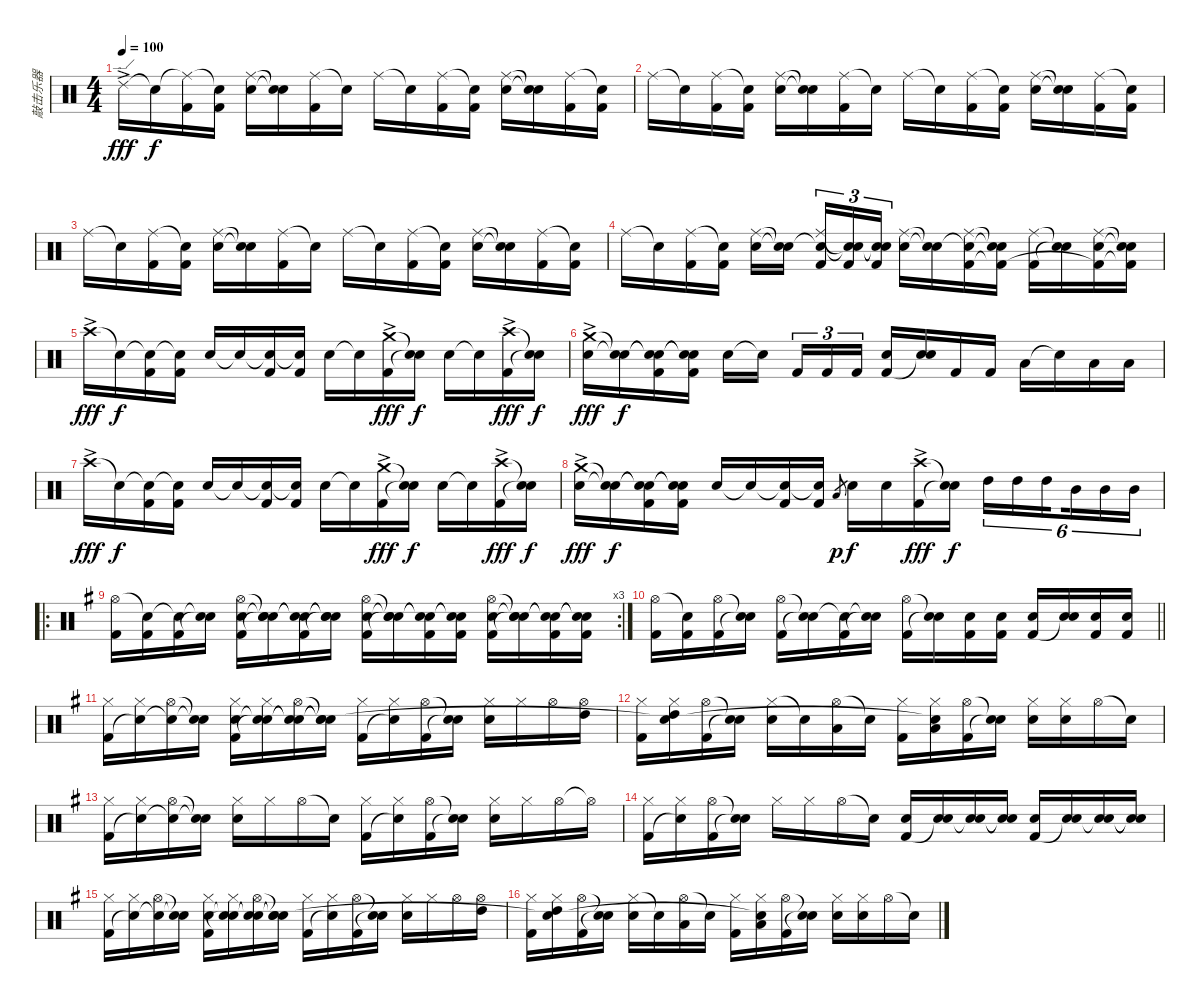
\track ("敲击乐器" "敲击乐器") {instrument percussion}
\staff {score}
\articulation defaults
\ts (4 4)
\tempo 100
\clef neutral
\ks c "Ride (edge) 2"{ac}.16{dy fff} "Snare (hit)"{t}.16{dy f}
("Ride (middle)"{t} "Kick (hit) 2").16 ("Snare (hit)"{t} "Kick (hit) 2").16 ("Ride (middle)" "Snare (hit) 2").16 ("Snare (hit)"{t} "Snare (hit)"{t}).16 ("Ride (middle)" "Kick (hit) 2").16 "Snare (hit)"{t}.16 "Ride (middle)".16 "Snare (hit)"{t}.16 ("Ride (middle)" "Kick (hit) 2").16 ("Snare (hit)"{t} "Kick (hit) 2").16 ("Ride (middle)" "Snare (hit) 2").16 ("Snare (hit)"{t} "Snare (hit)"{t}).16 ("Ride (middle)" "Kick (hit) 2").16 ("Snare (hit)"{t} "Kick (hit) 2").16 |
"Ride (middle)".16 "Snare (hit)"{t}.16 ("Ride (middle)" "Kick (hit) 2").16 ("Snare (hit)"{t} "Kick (hit) 2").16 ("Ride (middle)" "Snare (hit) 2").16 ("Snare (hit)"{t} "Snare (hit)"{t}).16 ("Ride (middle)" "Kick (hit) 2").16 "Snare (hit)"{t}.16 "Ride (middle)".16 "Snare (hit)"{t}.16 ("Ride (middle)" "Kick (hit) 2").16 ("Snare (hit)"{t} "Kick (hit) 2").16 ("Ride (middle)" "Snare (hit) 2").16 ("Snare (hit)"{t} "Snare (hit)"{t}).16 ("Ride (middle)" "Kick (hit) 2").16 ("Snare (hit)"{t} "Kick (hit) 2").16 |
"Ride (middle)".16 "Snare (hit)"{t}.16 ("Ride (middle)" "Kick (hit) 2").16 ("Snare (hit)"{t} "Kick (hit) 2").16 ("Ride (middle)" "Snare (hit) 2").16 ("Snare (hit)"{t} "Snare (hit)"{t}).16 ("Ride (middle)" "Kick (hit) 2").16 "Snare (hit)"{t}.16 "Ride (middle)".16 "Snare (hit)"{t}.16 ("Ride (middle)" "Kick (hit) 2").16 ("Snare (hit)"{t} "Kick (hit) 2").16 ("Ride (middle)" "Snare (hit) 2").16 ("Snare (hit)"{t} "Snare (hit)"{t}).16 ("Ride (middle)" "Kick (hit) 2").16 ("Snare (hit)"{t} "Kick (hit) 2").16 |
"Ride (middle)".16 "Snare (hit)"{t}.16 ("Ride (middle)" "Kick (hit) 2").16 ("Snare (hit)"{t} "Kick (hit) 2").16 ("Ride (middle)" "Snare (hit) 2").16 ("Snare (hit)"{t} "Snare (hit)"{t}).16{beam splitsecondary} ("Ride (middle)" "Snare (hit)"{t} "Kick (hit) 2").16{tu (3 2)} ("Snare (hit)"{t} "Snare (hit)"{t} "Kick (hit) 2").16{tu (3 2)} ("Snare (hit)"{t} "Snare (hit)"{t} "Kick (hit) 2").16{tu (3 2)} ("Ride (middle)" "Snare (hit) 2").16 ("Snare (hit)"{t} "Snare (hit)"{t}).16 ("Ride (middle)" "Snare (hit)"{t} "Kick (hit) 2").16 ("Snare (hit)"{t} "Snare (hit)"{t} "Kick (hit) 2"{t}).16 ("Ride (middle)" "Kick (hit) 2").16 ("Snare (hit)"{t} "Snare (hit)"{t}).16 ("Ride (middle)" "Snare (hit) 2" "Kick (hit) 2"{t}).16 ("Snare (hit)"{t} "Snare (hit)"{t} "Kick (hit) 2"{t}).16 |
"Crash high (hit)"{ac}.16{dy fff} "Snare (hit)"{t}.16{dy f} ("Snare (hit)"{t} "Kick (hit) 2").16 ("Snare (hit)"{t} "Kick (hit) 2").16 "Snare (hit) 2".16 "Snare (hit)"{t}.16 ("Snare (hit)"{t} "Kick (hit) 2").16 ("Snare (hit)"{t} "Kick (hit) 2").16 "Snare (hit) 2".16 "Snare (hit)"{t}.16 ("Crash medium (hit)"{ac} "Kick (hit) 2").16{dy fff} ("Snare (hit)"{t} "Snare (hit)"{t}).16{dy f} "Snare (hit) 2".16 "Snare (hit)"{t}.16 ("Crash high (hit)"{ac} "Kick (hit) 2").16{dy fff} ("Snare (hit)"{t} "Snare (hit)"{t}).16{dy f} |
("Crash medium (hit)"{ac} "Snare (hit) 2").16{dy fff} ("Snare (hit)"{t} "Snare (hit)"{t}).16{dy f} ("Snare (hit)"{t} "Snare (hit)"{t} "Kick (hit) 2").16 ("Snare (hit)"{t} "Snare (hit)"{t} "Kick (hit) 2").16 "Snare (hit) 2".16 "Snare (hit)"{t}.16{beam splitsecondary} "Kick (hit) 2".16{tu (3 2)} "Kick (hit) 2".16{tu (3 2)} "Kick (hit) 2".16{tu (3 2)} ("Snare (hit) 2" "Kick (hit) 2").16 ("Snare (hit) 2" "Snare (hit)"{t}).16 "Kick (hit) 2".16 "Kick (hit) 2".16 "Low Tom (hit)".16 "Snare (hit)"{t}.16 "Low Floor Tom (hit)".16 "Low Floor Tom (hit)".16 |
"Crash high (hit)"{ac}.16{dy fff} "Snare (hit)"{t}.16{dy f} ("Snare (hit)"{t} "Kick (hit) 2").16 ("Snare (hit)"{t} "Kick (hit) 2").16 "Snare (hit) 2".16 "Snare (hit)"{t}.16 ("Snare (hit)"{t} "Kick (hit) 2").16 ("Snare (hit)"{t} "Kick (hit) 2").16 "Snare (hit) 2".16 "Snare (hit)"{t}.16 ("Crash medium (hit)"{ac} "Kick (hit) 2").16{dy fff} ("Snare (hit)"{t} "Snare (hit)"{t}).16{dy f} "Snare (hit) 2".16 "Snare (hit)"{t}.16 ("Crash high (hit)"{ac} "Kick (hit) 2").16{dy fff} ("Snare (hit)"{t} "Snare (hit)"{t}).16{dy f} |
("Crash medium (hit)"{ac} "Snare (hit) 2").16{dy fff} ("Snare (hit)"{t} "Snare (hit)"{t}).16{dy f} ("Snare (hit)"{t} "Snare (hit)"{t} "Kick (hit) 2").16 ("Snare (hit)"{t} "Snare (hit)"{t} "Kick (hit) 2").16 "Snare (hit) 2".16 "Snare (hit)"{t}.16 ("Snare (hit)"{t} "Kick (hit) 2").16 ("Snare (hit)"{t} "Kick (hit) 2").16 "Low Tom (hit)"{h}.8{gr dy p} "Snare (hit) 2".16{dy f} "Snare (hit) 2".16 ("Crash high (hit)"{ac} "Kick (hit) 2").16{dy fff} ("Snare (hit)"{t} "Snare (hit)"{t}).16{dy f} "High Tom (hit)".16{tu (6 4)} "High Tom (hit)".16{tu (6 4)} "High Tom (hit)".16{tu (6 4) beam splitsecondary} "Mid Tom (hit)".16{tu (6 4)} "Mid Tom (hit)".16{tu (6 4)} "Mid Tom (hit)".16{tu (6 4)} |
\ro
\rc 3
\ks g
("Hi-Hat (open)" "Kick (hit) 2").16 ("Snare (hit)"{t} "Kick (hit) 2").16 ("Snare (hit)"{t} "Kick (hit) 2").16 ("Snare (hit)"{t} "Snare (hit)"{t}).16 ("Hi-Hat (open)" "Snare (hit) 2" "Kick (hit) 2").16 ("Snare (hit)"{t} "Snare (hit)"{t} "Snare (hit)"{t}).16 ("Snare (hit)"{t} "Snare (hit)"{t} "Kick (hit) 2").16 ("Snare (hit)"{t} "Snare (hit)"{t} "Snare (hit)"{t}).16 ("Hi-Hat (open)" "Snare (hit) 2" "Kick (hit) 2").16 ("Snare (hit)"{t} "Snare (hit)"{t} "Snare (hit)"{t}).16 ("Snare (hit)"{t} "Snare (hit)"{t} "Kick (hit) 2").16 ("Snare (hit)"{t} "Snare (hit)"{t} "Kick (hit) 2").16 ("Hi-Hat (open)" "Snare (hit) 2" "Kick (hit) 2").16 ("Snare (hit)"{t} "Snare (hit)"{t} "Snare (hit)"{t}).16 ("Snare (hit)"{t} "Snare (hit)"{t} "Kick (hit) 2").16 ("Snare (hit)"{t} "Snare (hit)"{t} "Kick (hit) 2").16 |
\barLineRight lightlight
("Hi-Hat (open)" "Kick (hit) 2").16 ("Snare (hit)"{t} "Kick (hit) 2").16 ("Hi-Hat (open)" "Kick (hit) 2").16 ("Snare (hit)"{t} "Snare (hit)"{t}).16 ("Hi-Hat (open)" "Kick (hit) 2").16 ("Snare (hit)"{t} "Snare (hit)"{t}).16 ("Snare (hit)"{t} "Kick (hit) 2").16 ("Snare (hit)"{t} "Snare (hit)"{t}).16 ("Hi-Hat (open)" "Kick (hit) 2").16 ("Snare (hit)"{t} "Snare (hit)"{t}).16 ("Snare (hit) 2" "Kick (hit) 2").16 ("Snare (hit) 2" "Kick (hit) 2").16 ("Snare (hit) 2" "Kick (hit) 2").16 ("Snare (hit) 2" "Snare (hit)"{t}).16 ("Snare (hit) 2" "Kick (hit) 2").16 ("Snare (hit) 2" "Kick (hit) 2").16 |
("Hi-Hat (closed)" "Kick (hit) 2").16 ("Hi-Hat (closed)" "Snare (hit)"{t}).16 ("Hi-Hat (open)" "Snare (hit)"{t}).16 ("Snare (hit)"{t} "Snare (hit)"{t}).16 ("Hi-Hat (closed)" "Snare (hit) 2" "Kick (hit) 2").16 ("Hi-Hat (closed)" "Snare (hit)"{t} "Snare (hit)"{t}).16 ("Hi-Hat (open)" "Snare (hit)"{t} "Snare (hit)"{t}).16 ("Snare (hit)"{t} "Snare (hit)"{t} "Snare (hit)"{t}).16 ("Hi-Hat (closed)" "Kick (hit) 2").16 ("Hi-Hat (closed)" "Snare (hit)"{t}).16 ("Hi-Hat (open)" "Kick (hit) 2").16 ("Snare (hit)"{t} "Snare (hit)"{t}).16 ("Hi-Hat (closed)" "Snare (hit) 2").16 "Hi-Hat (closed)".16 "Hi-Hat (open)".16 ("Hi-Hat (open)" "High Tom (hit)").16 |
("Hi-Hat (closed)" "Kick (hit) 2").16 ("Hi-Hat (closed)" "High Tom (hit)" "Snare (hit)"{t}).16 ("Hi-Hat (open)" "Kick (hit) 2").16 ("Snare (hit)"{t} "Snare (hit)"{t}).16 ("Hi-Hat (closed)" "Snare (hit) 2").16 "Snare (hit)"{t}.16 ("Hi-Hat (open)" "Low Tom (hit)").16 "Snare (hit)"{t}.16 ("Hi-Hat (closed)" "Kick (hit) 2").16 ("Hi-Hat (closed)" "Low Tom (hit)" "Snare (hit)"{t}).16 ("Hi-Hat (open)" "Kick (hit) 2").16 ("Snare (hit)"{t} "Snare (hit)"{t}).16 ("Hi-Hat (closed)" "Snare (hit) 2").16 ("Hi-Hat (closed)" "Snare (hit) 2").16 "Hi-Hat (open)".16 "Snare (hit)"{t}.16 |
("Hi-Hat (closed)" "Kick (hit) 2").16 ("Hi-Hat (closed)" "Snare (hit)"{t}).16 ("Hi-Hat (open)" "Snare (hit)"{t}).16 ("Snare (hit)"{t} "Snare (hit)"{t}).16 ("Hi-Hat (closed)" "Snare (hit) 2").16 "Hi-Hat (closed)".16 "Hi-Hat (open)".16 "Snare (hit)"{t}.16 ("Hi-Hat (closed)" "Kick (hit) 2").16 ("Hi-Hat (closed)" "Snare (hit)"{t}).16 ("Hi-Hat (open)" "Kick (hit) 2").16 ("Snare (hit)"{t} "Snare (hit)"{t}).16 ("Hi-Hat (closed)" "Snare (hit) 2").16 "Hi-Hat (closed)".16 "Hi-Hat (open)".16 "Hi-Hat (open)"{t}.16 |
("Hi-Hat (closed)" "Kick (hit) 2").16 ("Hi-Hat (closed)" "Snare (hit)"{t}).16 ("Hi-Hat (open)" "Kick (hit) 2").16 ("Snare (hit)"{t} "Snare (hit)"{t}).16 "Hi-Hat (closed)".16 "Hi-Hat (closed)".16 "Hi-Hat (open)".16 "Snare (hit)"{t}.16 ("Snare (hit) 2" "Kick (hit) 2").16 ("Snare (hit) 2" "Snare (hit)"{t}).16 ("Snare (hit) 2" "Snare (hit)"{t}).16 ("Snare (hit)"{t} "Snare (hit)"{t}).16 ("Snare (hit) 2" "Kick (hit) 2").16 ("Snare (hit) 2" "Snare (hit)"{t}).16 ("Snare (hit) 2" "Snare (hit)"{t}).16 ("Snare (hit)"{t} "Snare (hit)"{t}).16 |
("Hi-Hat (closed)" "Kick (hit) 2").16 ("Hi-Hat (closed)" "Snare (hit)"{t}).16 ("Hi-Hat (open)" "Snare (hit)"{t}).16 ("Snare (hit)"{t} "Snare (hit)"{t}).16 ("Hi-Hat (closed)" "Snare (hit) 2" "Kick (hit) 2").16 ("Hi-Hat (closed)" "Snare (hit)"{t} "Snare (hit)"{t}).16 ("Hi-Hat (open)" "Snare (hit)"{t} "Snare (hit)"{t}).16 ("Snare (hit)"{t} "Snare (hit)"{t} "Snare (hit)"{t}).16 ("Hi-Hat (closed)" "Kick (hit) 2").16 ("Hi-Hat (closed)" "Snare (hit)"{t}).16 ("Hi-Hat (open)" "Kick (hit) 2").16 ("Snare (hit)"{t} "Snare (hit)"{t}).16 ("Hi-Hat (closed)" "Snare (hit) 2").16 "Hi-Hat (closed)".16 "Hi-Hat (open)".16 ("Hi-Hat (open)" "High Tom (hit)").16 |
("Hi-Hat (closed)" "Kick (hit) 2").16 ("Hi-Hat (closed)" "High Tom (hit)" "Snare (hit)"{t}).16 ("Hi-Hat (open)" "Kick (hit) 2").16 ("Snare (hit)"{t} "Snare (hit)"{t}).16 ("Hi-Hat (closed)" "Snare (hit) 2").16 "Snare (hit)"{t}.16 ("Hi-Hat (open)" "Low Tom (hit)").16 "Snare (hit)"{t}.16 ("Hi-Hat (closed)" "Kick (hit) 2").16 ("Hi-Hat (closed)" "Low Tom (hit)" "Snare (hit)"{t}).16 ("Hi-Hat (open)" "Kick (hit) 2").16 ("Snare (hit)"{t} "Snare (hit)"{t}).16 ("Hi-Hat (closed)" "Snare (hit) 2").16 ("Hi-Hat (closed)" "Snare (hit) 2").16 "Hi-Hat (open)".16 "Snare (hit)"{t}.16
